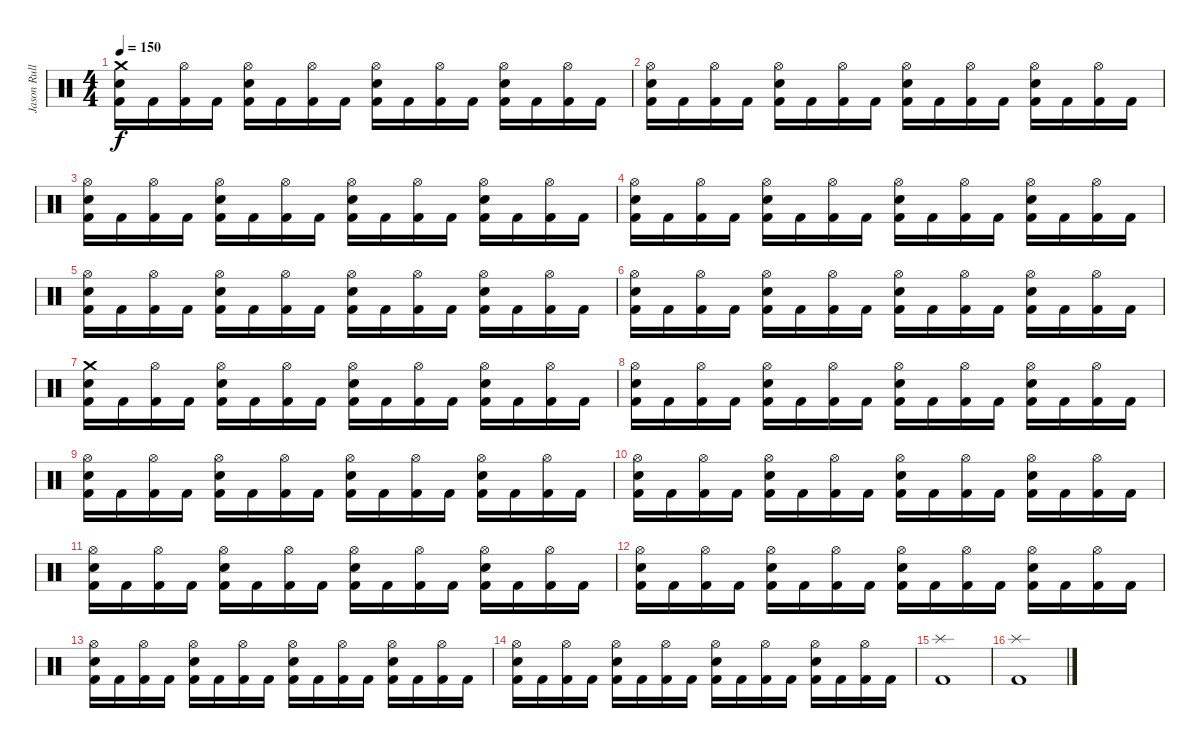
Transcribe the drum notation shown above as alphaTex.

\track ("Jason Rullo" "Jason Rull") {instrument percussion}
\staff {score}
\articulation defaults
\ts (4 4)
\tempo 150
\clef neutral
\ks c
("Crash medium (hit)" "Electric Snare (hit)" "Kick (hit) 2").16{dy f} "Kick (hit) 2".16 ("Hi-Hat (open)" "Kick (hit) 2").16 "Kick (hit) 2".16 ("Hi-Hat (open)" "Electric Snare (hit)" "Kick (hit) 2").16 "Kick (hit) 2".16 ("Hi-Hat (open)" "Kick (hit) 2").16 "Kick (hit) 2".16 ("Hi-Hat (open)" "Electric Snare (hit)" "Kick (hit) 2").16 "Kick (hit) 2".16 ("Hi-Hat (open)" "Kick (hit) 2").16 "Kick (hit) 2".16 ("Hi-Hat (open)" "Electric Snare (hit)" "Kick (hit) 2").16 "Kick (hit) 2".16 ("Hi-Hat (open)" "Kick (hit) 2").16 "Kick (hit) 2".16 |
("Hi-Hat (open)" "Electric Snare (hit)" "Kick (hit) 2").16 "Kick (hit) 2".16 ("Hi-Hat (open)" "Kick (hit) 2").16 "Kick (hit) 2".16 ("Hi-Hat (open)" "Electric Snare (hit)" "Kick (hit) 2").16 "Kick (hit) 2".16 ("Hi-Hat (open)" "Kick (hit) 2").16 "Kick (hit) 2".16 ("Hi-Hat (open)" "Electric Snare (hit)" "Kick (hit) 2").16 "Kick (hit) 2".16 ("Hi-Hat (open)" "Kick (hit) 2").16 "Kick (hit) 2".16 ("Hi-Hat (open)" "Electric Snare (hit)" "Kick (hit) 2").16 "Kick (hit) 2".16 ("Hi-Hat (open)" "Kick (hit) 2").16 "Kick (hit) 2".16 |
("Hi-Hat (open)" "Electric Snare (hit)" "Kick (hit) 2").16 "Kick (hit) 2".16 ("Hi-Hat (open)" "Kick (hit) 2").16 "Kick (hit) 2".16 ("Hi-Hat (open)" "Electric Snare (hit)" "Kick (hit) 2").16 "Kick (hit) 2".16 ("Hi-Hat (open)" "Kick (hit) 2").16 "Kick (hit) 2".16 ("Hi-Hat (open)" "Electric Snare (hit)" "Kick (hit) 2").16 "Kick (hit) 2".16 ("Hi-Hat (open)" "Kick (hit) 2").16 "Kick (hit) 2".16 ("Hi-Hat (open)" "Electric Snare (hit)" "Kick (hit) 2").16 "Kick (hit) 2".16 ("Hi-Hat (open)" "Kick (hit) 2").16 "Kick (hit) 2".16 |
("Hi-Hat (open)" "Electric Snare (hit)" "Kick (hit) 2").16 "Kick (hit) 2".16 ("Hi-Hat (open)" "Kick (hit) 2").16 "Kick (hit) 2".16 ("Hi-Hat (open)" "Electric Snare (hit)" "Kick (hit) 2").16 "Kick (hit) 2".16 ("Hi-Hat (open)" "Kick (hit) 2").16 "Kick (hit) 2".16 ("Hi-Hat (open)" "Electric Snare (hit)" "Kick (hit) 2").16 "Kick (hit) 2".16 ("Hi-Hat (open)" "Kick (hit) 2").16 "Kick (hit) 2".16 ("Hi-Hat (open)" "Electric Snare (hit)" "Kick (hit) 2").16 "Kick (hit) 2".16 ("Hi-Hat (open)" "Kick (hit) 2").16 "Kick (hit) 2".16 |
("Hi-Hat (open)" "Electric Snare (hit)" "Kick (hit) 2").16 "Kick (hit) 2".16 ("Hi-Hat (open)" "Kick (hit) 2").16 "Kick (hit) 2".16 ("Hi-Hat (open)" "Electric Snare (hit)" "Kick (hit) 2").16 "Kick (hit) 2".16 ("Hi-Hat (open)" "Kick (hit) 2").16 "Kick (hit) 2".16 ("Hi-Hat (open)" "Electric Snare (hit)" "Kick (hit) 2").16 "Kick (hit) 2".16 ("Hi-Hat (open)" "Kick (hit) 2").16 "Kick (hit) 2".16 ("Hi-Hat (open)" "Electric Snare (hit)" "Kick (hit) 2").16 "Kick (hit) 2".16 ("Hi-Hat (open)" "Kick (hit) 2").16 "Kick (hit) 2".16 |
("Hi-Hat (open)" "Electric Snare (hit)" "Kick (hit) 2").16 "Kick (hit) 2".16 ("Hi-Hat (open)" "Kick (hit) 2").16 "Kick (hit) 2".16 ("Hi-Hat (open)" "Electric Snare (hit)" "Kick (hit) 2").16 "Kick (hit) 2".16 ("Hi-Hat (open)" "Kick (hit) 2").16 "Kick (hit) 2".16 ("Hi-Hat (open)" "Electric Snare (hit)" "Kick (hit) 2").16 "Kick (hit) 2".16 ("Hi-Hat (open)" "Kick (hit) 2").16 "Kick (hit) 2".16 ("Hi-Hat (open)" "Electric Snare (hit)" "Kick (hit) 2").16 "Kick (hit) 2".16 ("Hi-Hat (open)" "Kick (hit) 2").16 "Kick (hit) 2".16 |
("Crash medium (hit)" "Electric Snare (hit)" "Kick (hit) 2").16 "Kick (hit) 2".16 ("Hi-Hat (open)" "Kick (hit) 2").16 "Kick (hit) 2".16 ("Hi-Hat (open)" "Electric Snare (hit)" "Kick (hit) 2").16 "Kick (hit) 2".16 ("Hi-Hat (open)" "Kick (hit) 2").16 "Kick (hit) 2".16 ("Hi-Hat (open)" "Electric Snare (hit)" "Kick (hit) 2").16 "Kick (hit) 2".16 ("Hi-Hat (open)" "Kick (hit) 2").16 "Kick (hit) 2".16 ("Hi-Hat (open)" "Electric Snare (hit)" "Kick (hit) 2").16 "Kick (hit) 2".16 ("Hi-Hat (open)" "Kick (hit) 2").16 "Kick (hit) 2".16 |
("Hi-Hat (open)" "Electric Snare (hit)" "Kick (hit) 2").16 "Kick (hit) 2".16 ("Hi-Hat (open)" "Kick (hit) 2").16 "Kick (hit) 2".16 ("Hi-Hat (open)" "Electric Snare (hit)" "Kick (hit) 2").16 "Kick (hit) 2".16 ("Hi-Hat (open)" "Kick (hit) 2").16 "Kick (hit) 2".16 ("Hi-Hat (open)" "Electric Snare (hit)" "Kick (hit) 2").16 "Kick (hit) 2".16 ("Hi-Hat (open)" "Kick (hit) 2").16 "Kick (hit) 2".16 ("Hi-Hat (open)" "Electric Snare (hit)" "Kick (hit) 2").16 "Kick (hit) 2".16 ("Hi-Hat (open)" "Kick (hit) 2").16 "Kick (hit) 2".16 |
("Hi-Hat (open)" "Electric Snare (hit)" "Kick (hit) 2").16 "Kick (hit) 2".16 ("Hi-Hat (open)" "Kick (hit) 2").16 "Kick (hit) 2".16 ("Hi-Hat (open)" "Electric Snare (hit)" "Kick (hit) 2").16 "Kick (hit) 2".16 ("Hi-Hat (open)" "Kick (hit) 2").16 "Kick (hit) 2".16 ("Hi-Hat (open)" "Electric Snare (hit)" "Kick (hit) 2").16 "Kick (hit) 2".16 ("Hi-Hat (open)" "Kick (hit) 2").16 "Kick (hit) 2".16 ("Hi-Hat (open)" "Electric Snare (hit)" "Kick (hit) 2").16 "Kick (hit) 2".16 ("Hi-Hat (open)" "Kick (hit) 2").16 "Kick (hit) 2".16 |
("Hi-Hat (open)" "Electric Snare (hit)" "Kick (hit) 2").16 "Kick (hit) 2".16 ("Hi-Hat (open)" "Kick (hit) 2").16 "Kick (hit) 2".16 ("Hi-Hat (open)" "Electric Snare (hit)" "Kick (hit) 2").16 "Kick (hit) 2".16 ("Hi-Hat (open)" "Kick (hit) 2").16 "Kick (hit) 2".16 ("Hi-Hat (open)" "Electric Snare (hit)" "Kick (hit) 2").16 "Kick (hit) 2".16 ("Hi-Hat (open)" "Kick (hit) 2").16 "Kick (hit) 2".16 ("Hi-Hat (open)" "Electric Snare (hit)" "Kick (hit) 2").16 "Kick (hit) 2".16 ("Hi-Hat (open)" "Kick (hit) 2").16 "Kick (hit) 2".16 |
("Hi-Hat (open)" "Electric Snare (hit)" "Kick (hit) 2").16 "Kick (hit) 2".16 ("Hi-Hat (open)" "Kick (hit) 2").16 "Kick (hit) 2".16 ("Hi-Hat (open)" "Electric Snare (hit)" "Kick (hit) 2").16 "Kick (hit) 2".16 ("Hi-Hat (open)" "Kick (hit) 2").16 "Kick (hit) 2".16 ("Hi-Hat (open)" "Electric Snare (hit)" "Kick (hit) 2").16 "Kick (hit) 2".16 ("Hi-Hat (open)" "Kick (hit) 2").16 "Kick (hit) 2".16 ("Hi-Hat (open)" "Electric Snare (hit)" "Kick (hit) 2").16 "Kick (hit) 2".16 ("Hi-Hat (open)" "Kick (hit) 2").16 "Kick (hit) 2".16 |
("Hi-Hat (open)" "Electric Snare (hit)" "Kick (hit) 2").16 "Kick (hit) 2".16 ("Hi-Hat (open)" "Kick (hit) 2").16 "Kick (hit) 2".16 ("Hi-Hat (open)" "Electric Snare (hit)" "Kick (hit) 2").16 "Kick (hit) 2".16 ("Hi-Hat (open)" "Kick (hit) 2").16 "Kick (hit) 2".16 ("Hi-Hat (open)" "Electric Snare (hit)" "Kick (hit) 2").16 "Kick (hit) 2".16 ("Hi-Hat (open)" "Kick (hit) 2").16 "Kick (hit) 2".16 ("Hi-Hat (open)" "Electric Snare (hit)" "Kick (hit) 2").16 "Kick (hit) 2".16 ("Hi-Hat (open)" "Kick (hit) 2").16 "Kick (hit) 2".16 |
("Hi-Hat (open)" "Electric Snare (hit)" "Kick (hit) 2").16 "Kick (hit) 2".16 ("Hi-Hat (open)" "Kick (hit) 2").16 "Kick (hit) 2".16 ("Hi-Hat (open)" "Electric Snare (hit)" "Kick (hit) 2").16 "Kick (hit) 2".16 ("Hi-Hat (open)" "Kick (hit) 2").16 "Kick (hit) 2".16 ("Hi-Hat (open)" "Electric Snare (hit)" "Kick (hit) 2").16 "Kick (hit) 2".16 ("Hi-Hat (open)" "Kick (hit) 2").16 "Kick (hit) 2".16 ("Hi-Hat (open)" "Electric Snare (hit)" "Kick (hit) 2").16 "Kick (hit) 2".16 ("Hi-Hat (open)" "Kick (hit) 2").16 "Kick (hit) 2".16 |
("Hi-Hat (open)" "Electric Snare (hit)" "Kick (hit) 2").16 "Kick (hit) 2".16 ("Hi-Hat (open)" "Kick (hit) 2").16 "Kick (hit) 2".16 ("Hi-Hat (open)" "Electric Snare (hit)" "Kick (hit) 2").16 "Kick (hit) 2".16 ("Hi-Hat (open)" "Kick (hit) 2").16 "Kick (hit) 2".16 ("Hi-Hat (open)" "Electric Snare (hit)" "Kick (hit) 2").16 "Kick (hit) 2".16 ("Hi-Hat (open)" "Kick (hit) 2").16 "Kick (hit) 2".16 ("Hi-Hat (open)" "Electric Snare (hit)" "Kick (hit) 2").16 "Kick (hit) 2".16 ("Hi-Hat (open)" "Kick (hit) 2").16 "Kick (hit) 2".16 |
("Splash (hit)" "Kick (hit) 2").1 |
("Splash (hit)" "Kick (hit) 2").1
